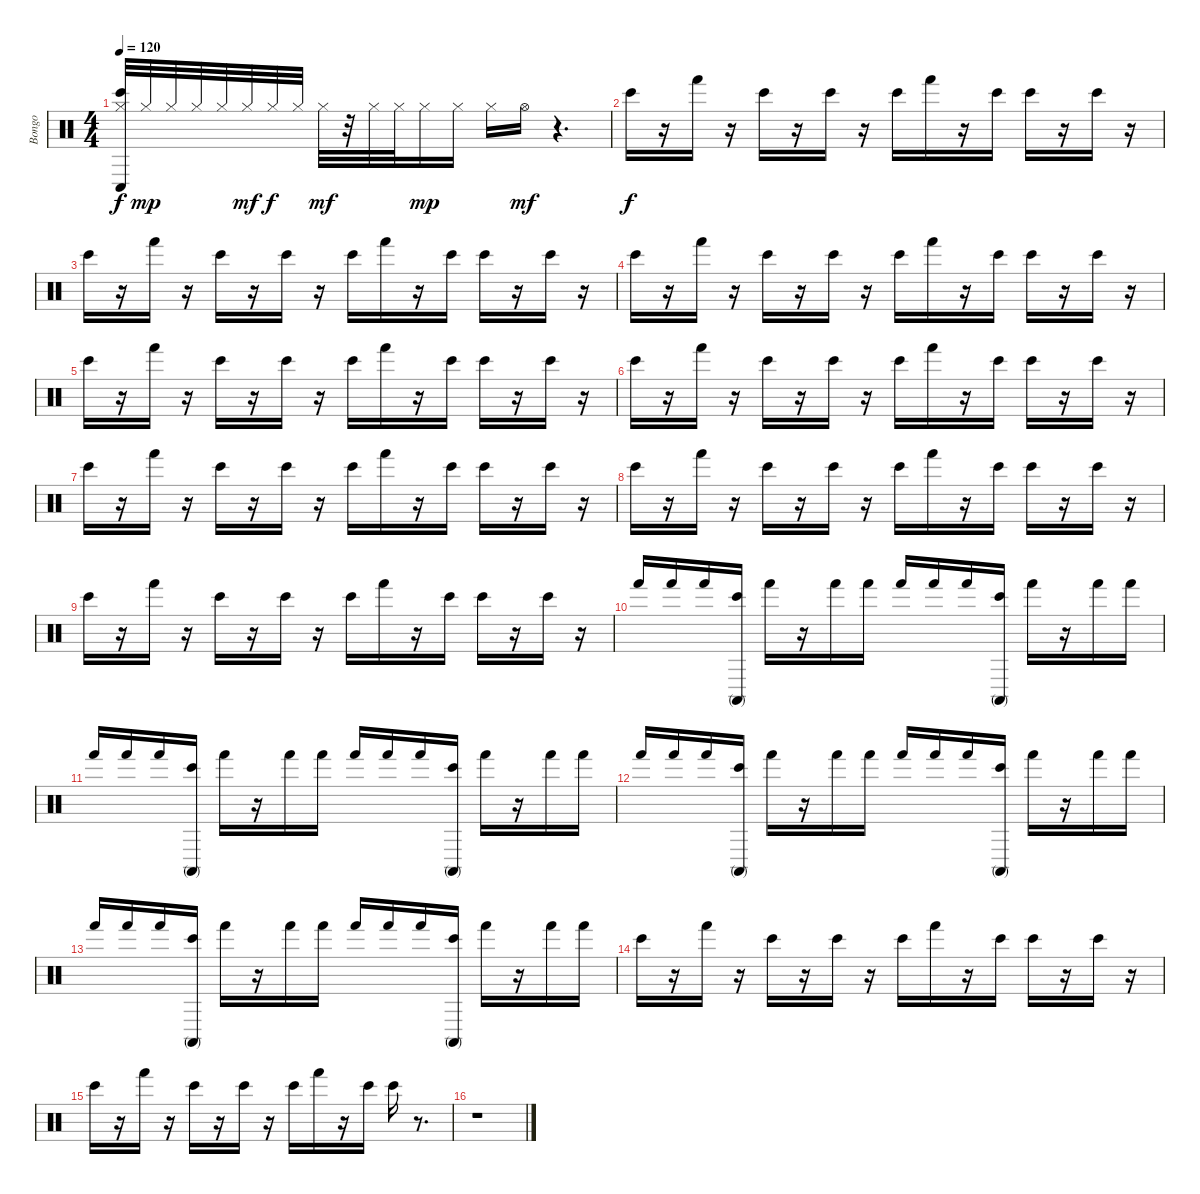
\track ("Bongo" "Bongo") {instrument percussion}
\staff {score}
\articulation defaults
\ts (4 4)
\tempo 120
\clef neutral
\ks c
("Hi-Hat (closed)" "Bongo High (hit)" "Conga low (hit)").32{dy f} "Hi-Hat (closed)".32{dy mp} "Hi-Hat (closed)".32 "Hi-Hat (closed)".32 "Hi-Hat (closed)".32 "Hi-Hat (closed)".32{dy mf} "Hi-Hat (closed)".32{dy f} "Hi-Hat (closed)".32 "Hi-Hat (closed)".32{dy mf} r.32 "Hi-Hat (closed)".32 "Hi-Hat (closed)".32 "Hi-Hat (closed)".16{dy mp} "Hi-Hat (closed)".16 "Hi-Hat (closed)".16 "Hi-Hat (open)".16{dy mf} r.4{d} |
"Bongo High (hit)".16{dy f} r.16 "Hand (hit)".16 r.16 "Bongo High (hit)".16 r.16 "Bongo High (hit)".16 r.16 "Bongo High (hit)".16 "Hand (hit)".16 r.16 "Bongo High (hit)".16 "Bongo High (hit)".16 r.16 "Bongo High (hit)".16 r.16 |
"Bongo High (hit)".16 r.16 "Hand (hit)".16 r.16 "Bongo High (hit)".16 r.16 "Bongo High (hit)".16 r.16 "Bongo High (hit)".16 "Hand (hit)".16 r.16 "Bongo High (hit)".16 "Bongo High (hit)".16 r.16 "Bongo High (hit)".16 r.16 |
"Bongo High (hit)".16 r.16 "Hand (hit)".16 r.16 "Bongo High (hit)".16 r.16 "Bongo High (hit)".16 r.16 "Bongo High (hit)".16 "Hand (hit)".16 r.16 "Bongo High (hit)".16 "Bongo High (hit)".16 r.16 "Bongo High (hit)".16 r.16 |
"Bongo High (hit)".16 r.16 "Hand (hit)".16 r.16 "Bongo High (hit)".16 r.16 "Bongo High (hit)".16 r.16 "Bongo High (hit)".16 "Hand (hit)".16 r.16 "Bongo High (hit)".16 "Bongo High (hit)".16 r.16 "Bongo High (hit)".16 r.16 |
"Bongo High (hit)".16 r.16 "Hand (hit)".16 r.16 "Bongo High (hit)".16 r.16 "Bongo High (hit)".16 r.16 "Bongo High (hit)".16 "Hand (hit)".16 r.16 "Bongo High (hit)".16 "Bongo High (hit)".16 r.16 "Bongo High (hit)".16 r.16 |
"Bongo High (hit)".16 r.16 "Hand (hit)".16 r.16 "Bongo High (hit)".16 r.16 "Bongo High (hit)".16 r.16 "Bongo High (hit)".16 "Hand (hit)".16 r.16 "Bongo High (hit)".16 "Bongo High (hit)".16 r.16 "Bongo High (hit)".16 r.16 |
"Bongo High (hit)".16 r.16 "Hand (hit)".16 r.16 "Bongo High (hit)".16 r.16 "Bongo High (hit)".16 r.16 "Bongo High (hit)".16 "Hand (hit)".16 r.16 "Bongo High (hit)".16 "Bongo High (hit)".16 r.16 "Bongo High (hit)".16 r.16 |
"Bongo High (hit)".16 r.16 "Hand (hit)".16 r.16 "Bongo High (hit)".16 r.16 "Bongo High (hit)".16 r.16 "Bongo High (hit)".16 "Hand (hit)".16 r.16 "Bongo High (hit)".16 "Bongo High (hit)".16 r.16 "Bongo High (hit)".16 r.16 |
"Hand (hit)".16 "Hand (hit)".16 "Hand (hit)".16 ("Bongo High (hit)" "Conga high (mute)").16 "Hand (hit)".16 r.16 "Hand (hit)".16 "Hand (hit)".16 "Hand (hit)".16 "Hand (hit)".16 "Hand (hit)".16 ("Bongo High (hit)" "Conga high (mute)").16 "Hand (hit)".16 r.16 "Hand (hit)".16 "Hand (hit)".16 |
"Hand (hit)".16 "Hand (hit)".16 "Hand (hit)".16 ("Bongo High (hit)" "Conga high (mute)").16 "Hand (hit)".16 r.16 "Hand (hit)".16 "Hand (hit)".16 "Hand (hit)".16 "Hand (hit)".16 "Hand (hit)".16 ("Bongo High (hit)" "Conga high (mute)").16 "Hand (hit)".16 r.16 "Hand (hit)".16 "Hand (hit)".16 |
"Hand (hit)".16 "Hand (hit)".16 "Hand (hit)".16 ("Bongo High (hit)" "Conga high (mute)").16 "Hand (hit)".16 r.16 "Hand (hit)".16 "Hand (hit)".16 "Hand (hit)".16 "Hand (hit)".16 "Hand (hit)".16 ("Bongo High (hit)" "Conga high (mute)").16 "Hand (hit)".16 r.16 "Hand (hit)".16 "Hand (hit)".16 |
"Hand (hit)".16 "Hand (hit)".16 "Hand (hit)".16 ("Bongo High (hit)" "Conga high (mute)").16 "Hand (hit)".16 r.16 "Hand (hit)".16 "Hand (hit)".16 "Hand (hit)".16 "Hand (hit)".16 "Hand (hit)".16 ("Bongo High (hit)" "Conga high (mute)").16 "Hand (hit)".16 r.16 "Hand (hit)".16 "Hand (hit)".16 |
"Bongo High (hit)".16 r.16 "Hand (hit)".16 r.16 "Bongo High (hit)".16 r.16 "Bongo High (hit)".16 r.16 "Bongo High (hit)".16 "Hand (hit)".16 r.16 "Bongo High (hit)".16 "Bongo High (hit)".16 r.16 "Bongo High (hit)".16 r.16 |
"Bongo High (hit)".16 r.16 "Hand (hit)".16 r.16 "Bongo High (hit)".16 r.16 "Bongo High (hit)".16 r.16 "Bongo High (hit)".16 "Hand (hit)".16 r.16 "Bongo High (hit)".16 "Bongo High (hit)".16 r.8{d} |
r.1
